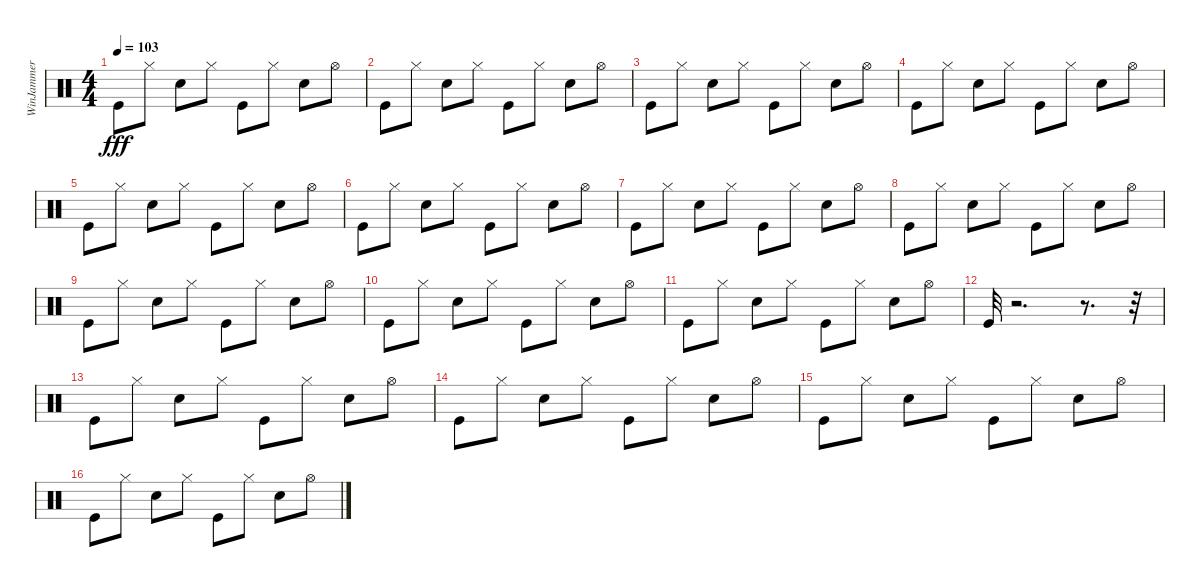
\track ("WinJammer Demo" "WinJammer ") {instrument percussion}
\staff {score}
\articulation defaults
\ts (4 4)
\tempo 103
\clef neutral
\ks c "Kick (hit)".8{dy fff} "Hi-Hat (closed)".8 "Snare (hit) 2".8 "Hi-Hat (closed)".8 "Kick (hit)".8 "Hi-Hat (closed)".8 "Snare (hit) 2".8 "Hi-Hat (open)".8
|
"Kick (hit)".8 "Hi-Hat (closed)".8 "Snare (hit) 2".8 "Hi-Hat (closed)".8 "Kick (hit)".8 "Hi-Hat (closed)".8 "Snare (hit) 2".8 "Hi-Hat (open)".8 |
"Kick (hit)".8 "Hi-Hat (closed)".8 "Snare (hit) 2".8 "Hi-Hat (closed)".8 "Kick (hit)".8 "Hi-Hat (closed)".8 "Snare (hit) 2".8 "Hi-Hat (open)".8 |
"Kick (hit)".8 "Hi-Hat (closed)".8 "Snare (hit) 2".8 "Hi-Hat (closed)".8 "Kick (hit)".8 "Hi-Hat (closed)".8 "Snare (hit) 2".8 "Hi-Hat (open)".8 |
"Kick (hit)".8 "Hi-Hat (closed)".8 "Snare (hit) 2".8 "Hi-Hat (closed)".8 "Kick (hit)".8 "Hi-Hat (closed)".8 "Snare (hit) 2".8 "Hi-Hat (open)".8 |
"Kick (hit)".8 "Hi-Hat (closed)".8 "Snare (hit) 2".8 "Hi-Hat (closed)".8 "Kick (hit)".8 "Hi-Hat (closed)".8 "Snare (hit) 2".8 "Hi-Hat (open)".8 |
"Kick (hit)".8 "Hi-Hat (closed)".8 "Snare (hit) 2".8 "Hi-Hat (closed)".8 "Kick (hit)".8 "Hi-Hat (closed)".8 "Snare (hit) 2".8 "Hi-Hat (open)".8 |
"Kick (hit)".8 "Hi-Hat (closed)".8 "Snare (hit) 2".8 "Hi-Hat (closed)".8 "Kick (hit)".8 "Hi-Hat (closed)".8 "Snare (hit) 2".8 "Hi-Hat (open)".8 |
"Kick (hit)".8 "Hi-Hat (closed)".8 "Snare (hit) 2".8 "Hi-Hat (closed)".8 "Kick (hit)".8 "Hi-Hat (closed)".8 "Snare (hit) 2".8 "Hi-Hat (open)".8 |
"Kick (hit)".8 "Hi-Hat (closed)".8 "Snare (hit) 2".8 "Hi-Hat (closed)".8 "Kick (hit)".8 "Hi-Hat (closed)".8 "Snare (hit) 2".8 "Hi-Hat (open)".8 |
"Kick (hit)".8 "Hi-Hat (closed)".8 "Snare (hit) 2".8 "Hi-Hat (closed)".8 "Kick (hit)".8 "Hi-Hat (closed)".8 "Snare (hit) 2".8 "Hi-Hat (open)".8 |
"Kick (hit)".32 r.2{d} r.8{d} r.32 |
"Kick (hit)".8 "Hi-Hat (closed)".8 "Snare (hit) 2".8 "Hi-Hat (closed)".8 "Kick (hit)".8 "Hi-Hat (closed)".8 "Snare (hit) 2".8 "Hi-Hat (open)".8 |
"Kick (hit)".8 "Hi-Hat (closed)".8 "Snare (hit) 2".8 "Hi-Hat (closed)".8 "Kick (hit)".8 "Hi-Hat (closed)".8 "Snare (hit) 2".8 "Hi-Hat (open)".8 |
"Kick (hit)".8 "Hi-Hat (closed)".8 "Snare (hit) 2".8 "Hi-Hat (closed)".8 "Kick (hit)".8 "Hi-Hat (closed)".8 "Snare (hit) 2".8 "Hi-Hat (open)".8 |
"Kick (hit)".8 "Hi-Hat (closed)".8 "Snare (hit) 2".8 "Hi-Hat (closed)".8 "Kick (hit)".8 "Hi-Hat (closed)".8 "Snare (hit) 2".8 "Hi-Hat (open)".8
